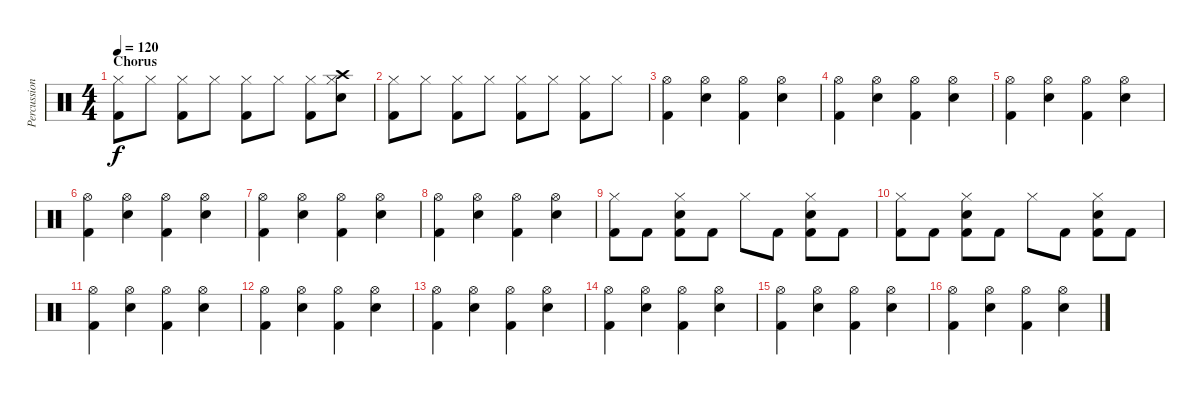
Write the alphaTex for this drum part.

\track ("Percussion" "Percussion") {instrument percussion}
\staff {score}
\articulation defaults
\ts (4 4)
\section ("" "Chorus")
\tempo 120
\clef neutral
\ks c
("Hi-Hat (closed)" "Kick (hit) 2").8{dy f} "Hi-Hat (closed)".8 ("Hi-Hat (closed)" "Kick (hit) 2").8 "Hi-Hat (closed)".8 ("Hi-Hat (closed)" "Kick (hit) 2").8 "Hi-Hat (closed)".8 ("Hi-Hat (closed)" "Kick (hit) 2").8 ("Hi-Hat (closed)" "Snare (hit) 2" "Crash high (hit)").8 |
("Hi-Hat (closed)" "Kick (hit) 2").8 "Hi-Hat (closed)".8 ("Hi-Hat (closed)" "Kick (hit) 2").8 "Hi-Hat (closed)".8 ("Hi-Hat (closed)" "Kick (hit) 2").8 "Hi-Hat (closed)".8 ("Hi-Hat (closed)" "Kick (hit) 2").8 "Hi-Hat (closed)".8 |
("Hi-Hat (open)" "Kick (hit) 2").4 ("Hi-Hat (open)" "Snare (hit) 2").4 ("Hi-Hat (open)" "Kick (hit) 2").4 ("Hi-Hat (open)" "Snare (hit) 2").4 |
("Hi-Hat (open)" "Kick (hit) 2").4 ("Hi-Hat (open)" "Snare (hit) 2").4 ("Hi-Hat (open)" "Kick (hit) 2").4 ("Hi-Hat (open)" "Snare (hit) 2").4 |
("Hi-Hat (open)" "Kick (hit) 2").4 ("Hi-Hat (open)" "Snare (hit) 2").4 ("Hi-Hat (open)" "Kick (hit) 2").4 ("Hi-Hat (open)" "Snare (hit) 2").4 |
("Hi-Hat (open)" "Kick (hit) 2").4 ("Hi-Hat (open)" "Snare (hit) 2").4 ("Hi-Hat (open)" "Kick (hit) 2").4 ("Hi-Hat (open)" "Snare (hit) 2").4 |
("Hi-Hat (open)" "Kick (hit) 2").4 ("Hi-Hat (open)" "Snare (hit) 2").4 ("Hi-Hat (open)" "Kick (hit) 2").4 ("Hi-Hat (open)" "Snare (hit) 2").4 |
("Hi-Hat (open)" "Kick (hit) 2").4 ("Hi-Hat (open)" "Snare (hit) 2").4 ("Hi-Hat (open)" "Kick (hit) 2").4 ("Hi-Hat (open)" "Snare (hit) 2").4 |
("Hi-Hat (closed)" "Kick (hit) 2").8 "Kick (hit) 2".8 ("Hi-Hat (closed)" "Kick (hit) 2" "Snare (hit) 2").8 "Kick (hit) 2".8 "Hi-Hat (closed)".8 "Kick (hit) 2".8 ("Hi-Hat (closed)" "Kick (hit) 2" "Snare (hit) 2").8 "Kick (hit) 2".8 |
("Hi-Hat (closed)" "Kick (hit) 2").8 "Kick (hit) 2".8 ("Hi-Hat (closed)" "Kick (hit) 2" "Snare (hit) 2").8 "Kick (hit) 2".8 "Hi-Hat (closed)".8 "Kick (hit) 2".8 ("Hi-Hat (closed)" "Kick (hit) 2" "Snare (hit) 2").8 "Kick (hit) 2".8 |
("Hi-Hat (open)" "Kick (hit) 2").4 ("Hi-Hat (open)" "Snare (hit) 2").4 ("Hi-Hat (open)" "Kick (hit) 2").4 ("Hi-Hat (open)" "Snare (hit) 2").4 |
("Hi-Hat (open)" "Kick (hit) 2").4 ("Hi-Hat (open)" "Snare (hit) 2").4 ("Hi-Hat (open)" "Kick (hit) 2").4 ("Hi-Hat (open)" "Snare (hit) 2").4 |
("Hi-Hat (open)" "Kick (hit) 2").4 ("Hi-Hat (open)" "Snare (hit) 2").4 ("Hi-Hat (open)" "Kick (hit) 2").4 ("Hi-Hat (open)" "Snare (hit) 2").4 |
("Hi-Hat (open)" "Kick (hit) 2").4 ("Hi-Hat (open)" "Snare (hit) 2").4 ("Hi-Hat (open)" "Kick (hit) 2").4 ("Hi-Hat (open)" "Snare (hit) 2").4 |
("Hi-Hat (open)" "Kick (hit) 2").4 ("Hi-Hat (open)" "Snare (hit) 2").4 ("Hi-Hat (open)" "Kick (hit) 2").4 ("Hi-Hat (open)" "Snare (hit) 2").4 |
("Hi-Hat (open)" "Kick (hit) 2").4 ("Hi-Hat (open)" "Snare (hit) 2").4 ("Hi-Hat (open)" "Kick (hit) 2").4 ("Hi-Hat (open)" "Snare (hit) 2").4
